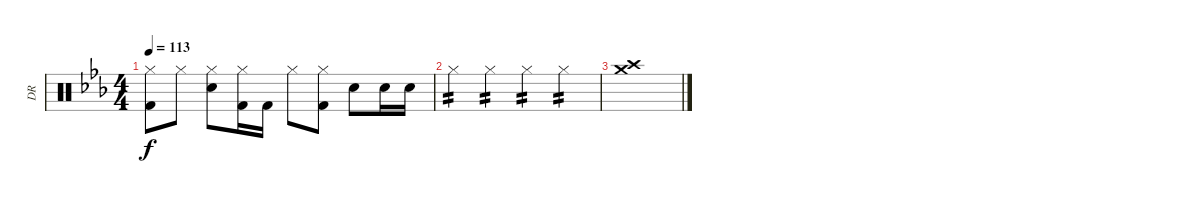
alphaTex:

\track ("DR" "DR") {instrument percussion}
\staff {score}
\articulation defaults
\ts (4 4)
\tempo 113
\clef neutral
\ks cminor
("Hi-Hat (closed)" "Kick (hit) 2").8{dy f} "Hi-Hat (closed)".8 ("Hi-Hat (closed)" "Electric Snare (hit)").8 ("Hi-Hat (closed)" "Kick (hit) 2").16 "Kick (hit) 2".16 "Hi-Hat (closed)".8 ("Hi-Hat (closed)" "Kick (hit) 2").8 "Electric Snare (hit)".8 "Electric Snare (hit)".16 "Electric Snare (hit)".16 |
"Hi-Hat (closed)".4{tp 2} "Hi-Hat (closed)".4{tp 2} "Hi-Hat (closed)".4{tp 2} "Hi-Hat (closed)".4{tp 2} |
("Crash medium (hit)" "Crash high (hit)").1
